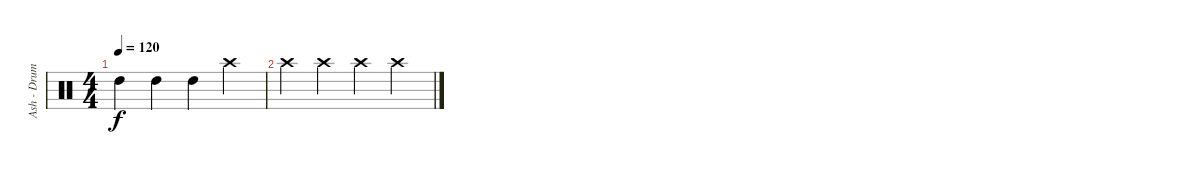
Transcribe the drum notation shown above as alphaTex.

\track ("Ash - Drums" "Ash - Drum") {instrument percussion}
\staff {score}
\articulation defaults
\ts (4 4)
\tempo 120
\clef neutral
\ks c "High Tom (hit)".4{dy f} "High Tom (hit)".4 "High Tom (hit)".4 "Crash high (hit)".4
|
"Crash high (hit)".4 "Crash high (hit)".4 "Crash high (hit)".4 "Crash high (hit)".4
